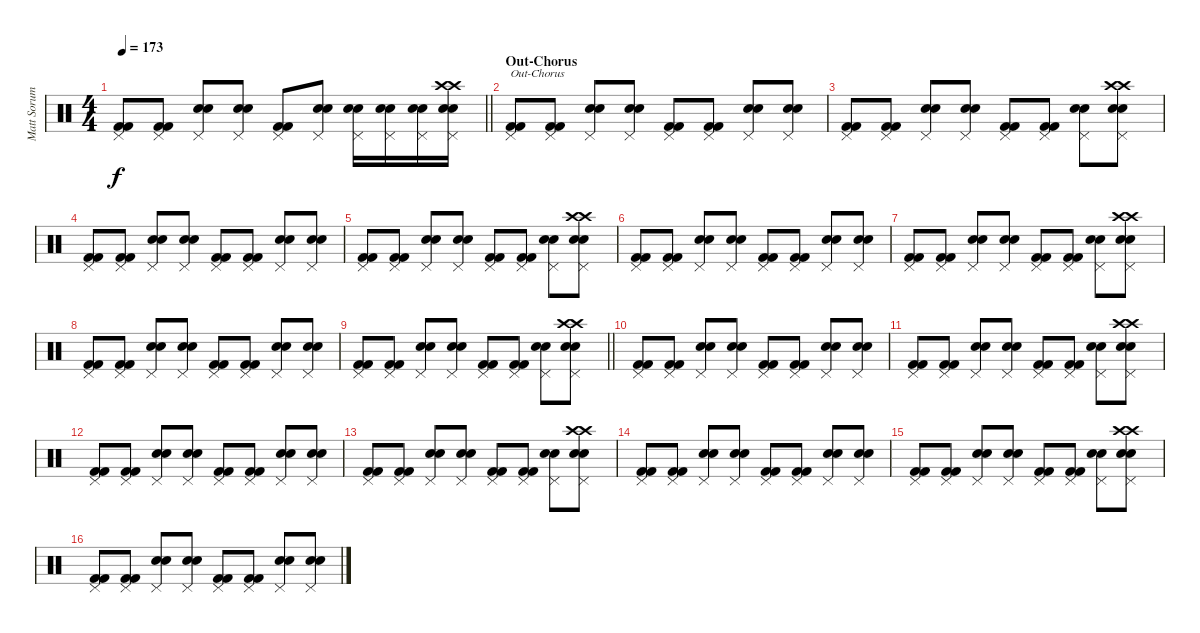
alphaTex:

\track ("Matt Sorum" "Matt Sorum") {instrument percussion}
\staff {score}
\articulation defaults
\ts (4 4)
\tempo 173
\clef neutral
\barLineRight lightlight
\ks c
("Pedal Hi-Hat (hit)" "Kick (hit) 2" "Kick (hit) 2").8{dy f} ("Pedal Hi-Hat (hit)" "Kick (hit) 2" "Kick (hit) 2").8 ("Pedal Hi-Hat (hit)" "Snare (hit) 2" "Snare (hit) 2").8 ("Pedal Hi-Hat (hit)" "Snare (hit) 2" "Snare (hit) 2").8 ("Pedal Hi-Hat (hit)" "Kick (hit) 2" "Kick (hit) 2").8 ("Pedal Hi-Hat (hit)" "Snare (hit) 2" "Snare (hit) 2").8 ("Pedal Hi-Hat (hit)" "Snare (hit) 2" "Snare (hit) 2").16 ("Pedal Hi-Hat (hit)" "Snare (hit) 2" "Snare (hit) 2").16 ("Pedal Hi-Hat (hit)" "Snare (hit) 2" "Snare (hit) 2").16 ("Crash high (hit)" "Crash high (hit)" "Pedal Hi-Hat (hit)" "Snare (hit) 2" "Snare (hit) 2").16 |
\section ("" "Out-Chorus")
("Pedal Hi-Hat (hit)" "Kick (hit) 2" "Kick (hit) 2").8{txt "Out-Chorus"} ("Pedal Hi-Hat (hit)" "Kick (hit) 2" "Kick (hit) 2").8 ("Pedal Hi-Hat (hit)" "Snare (hit) 2" "Snare (hit) 2").8 ("Pedal Hi-Hat (hit)" "Snare (hit) 2" "Snare (hit) 2").8 ("Pedal Hi-Hat (hit)" "Kick (hit) 2" "Kick (hit) 2").8 ("Pedal Hi-Hat (hit)" "Kick (hit) 2" "Kick (hit) 2").8 ("Pedal Hi-Hat (hit)" "Snare (hit) 2" "Snare (hit) 2").8 ("Pedal Hi-Hat (hit)" "Snare (hit) 2" "Snare (hit) 2").8 |
("Pedal Hi-Hat (hit)" "Kick (hit) 2" "Kick (hit) 2").8 ("Pedal Hi-Hat (hit)" "Kick (hit) 2" "Kick (hit) 2").8 ("Pedal Hi-Hat (hit)" "Snare (hit) 2" "Snare (hit) 2").8 ("Pedal Hi-Hat (hit)" "Snare (hit) 2" "Snare (hit) 2").8 ("Pedal Hi-Hat (hit)" "Kick (hit) 2" "Kick (hit) 2").8 ("Pedal Hi-Hat (hit)" "Kick (hit) 2" "Kick (hit) 2").8 ("Pedal Hi-Hat (hit)" "Snare (hit) 2" "Snare (hit) 2").8 ("Crash high (hit)" "Crash high (hit)" "Pedal Hi-Hat (hit)" "Snare (hit) 2" "Snare (hit) 2").8 |
("Pedal Hi-Hat (hit)" "Kick (hit) 2" "Kick (hit) 2").8 ("Pedal Hi-Hat (hit)" "Kick (hit) 2" "Kick (hit) 2").8 ("Pedal Hi-Hat (hit)" "Snare (hit) 2" "Snare (hit) 2").8 ("Pedal Hi-Hat (hit)" "Snare (hit) 2" "Snare (hit) 2").8 ("Pedal Hi-Hat (hit)" "Kick (hit) 2" "Kick (hit) 2").8 ("Pedal Hi-Hat (hit)" "Kick (hit) 2" "Kick (hit) 2").8 ("Pedal Hi-Hat (hit)" "Snare (hit) 2" "Snare (hit) 2").8 ("Pedal Hi-Hat (hit)" "Snare (hit) 2" "Snare (hit) 2").8 |
("Pedal Hi-Hat (hit)" "Kick (hit) 2" "Kick (hit) 2").8 ("Pedal Hi-Hat (hit)" "Kick (hit) 2" "Kick (hit) 2").8 ("Pedal Hi-Hat (hit)" "Snare (hit) 2" "Snare (hit) 2").8 ("Pedal Hi-Hat (hit)" "Snare (hit) 2" "Snare (hit) 2").8 ("Pedal Hi-Hat (hit)" "Kick (hit) 2" "Kick (hit) 2").8 ("Pedal Hi-Hat (hit)" "Kick (hit) 2" "Kick (hit) 2").8 ("Pedal Hi-Hat (hit)" "Snare (hit) 2" "Snare (hit) 2").8 ("Crash high (hit)" "Crash high (hit)" "Pedal Hi-Hat (hit)" "Snare (hit) 2" "Snare (hit) 2").8 |
("Pedal Hi-Hat (hit)" "Kick (hit) 2" "Kick (hit) 2").8 ("Pedal Hi-Hat (hit)" "Kick (hit) 2" "Kick (hit) 2").8 ("Pedal Hi-Hat (hit)" "Snare (hit) 2" "Snare (hit) 2").8 ("Pedal Hi-Hat (hit)" "Snare (hit) 2" "Snare (hit) 2").8 ("Pedal Hi-Hat (hit)" "Kick (hit) 2" "Kick (hit) 2").8 ("Pedal Hi-Hat (hit)" "Kick (hit) 2" "Kick (hit) 2").8 ("Pedal Hi-Hat (hit)" "Snare (hit) 2" "Snare (hit) 2").8 ("Pedal Hi-Hat (hit)" "Snare (hit) 2" "Snare (hit) 2").8 |
("Pedal Hi-Hat (hit)" "Kick (hit) 2" "Kick (hit) 2").8 ("Pedal Hi-Hat (hit)" "Kick (hit) 2" "Kick (hit) 2").8 ("Pedal Hi-Hat (hit)" "Snare (hit) 2" "Snare (hit) 2").8 ("Pedal Hi-Hat (hit)" "Snare (hit) 2" "Snare (hit) 2").8 ("Pedal Hi-Hat (hit)" "Kick (hit) 2" "Kick (hit) 2").8 ("Pedal Hi-Hat (hit)" "Kick (hit) 2" "Kick (hit) 2").8 ("Pedal Hi-Hat (hit)" "Snare (hit) 2" "Snare (hit) 2").8 ("Crash high (hit)" "Crash high (hit)" "Pedal Hi-Hat (hit)" "Snare (hit) 2" "Snare (hit) 2").8 |
("Pedal Hi-Hat (hit)" "Kick (hit) 2" "Kick (hit) 2").8 ("Pedal Hi-Hat (hit)" "Kick (hit) 2" "Kick (hit) 2").8 ("Pedal Hi-Hat (hit)" "Snare (hit) 2" "Snare (hit) 2").8 ("Pedal Hi-Hat (hit)" "Snare (hit) 2" "Snare (hit) 2").8 ("Pedal Hi-Hat (hit)" "Kick (hit) 2" "Kick (hit) 2").8 ("Pedal Hi-Hat (hit)" "Kick (hit) 2" "Kick (hit) 2").8 ("Pedal Hi-Hat (hit)" "Snare (hit) 2" "Snare (hit) 2").8 ("Pedal Hi-Hat (hit)" "Snare (hit) 2" "Snare (hit) 2").8 |
\barLineRight lightlight
("Pedal Hi-Hat (hit)" "Kick (hit) 2" "Kick (hit) 2").8 ("Pedal Hi-Hat (hit)" "Kick (hit) 2" "Kick (hit) 2").8 ("Pedal Hi-Hat (hit)" "Snare (hit) 2" "Snare (hit) 2").8 ("Pedal Hi-Hat (hit)" "Snare (hit) 2" "Snare (hit) 2").8 ("Pedal Hi-Hat (hit)" "Kick (hit) 2" "Kick (hit) 2").8 ("Pedal Hi-Hat (hit)" "Kick (hit) 2" "Kick (hit) 2").8 ("Pedal Hi-Hat (hit)" "Snare (hit) 2" "Snare (hit) 2").8 ("Crash high (hit)" "Crash high (hit)" "Pedal Hi-Hat (hit)" "Snare (hit) 2" "Snare (hit) 2").8 |
("Pedal Hi-Hat (hit)" "Kick (hit) 2" "Kick (hit) 2").8 ("Pedal Hi-Hat (hit)" "Kick (hit) 2" "Kick (hit) 2").8 ("Pedal Hi-Hat (hit)" "Snare (hit) 2" "Snare (hit) 2").8 ("Pedal Hi-Hat (hit)" "Snare (hit) 2" "Snare (hit) 2").8 ("Pedal Hi-Hat (hit)" "Kick (hit) 2" "Kick (hit) 2").8 ("Pedal Hi-Hat (hit)" "Kick (hit) 2" "Kick (hit) 2").8 ("Pedal Hi-Hat (hit)" "Snare (hit) 2" "Snare (hit) 2").8 ("Pedal Hi-Hat (hit)" "Snare (hit) 2" "Snare (hit) 2").8 |
("Pedal Hi-Hat (hit)" "Kick (hit) 2" "Kick (hit) 2").8 ("Pedal Hi-Hat (hit)" "Kick (hit) 2" "Kick (hit) 2").8 ("Pedal Hi-Hat (hit)" "Snare (hit) 2" "Snare (hit) 2").8 ("Pedal Hi-Hat (hit)" "Snare (hit) 2" "Snare (hit) 2").8 ("Pedal Hi-Hat (hit)" "Kick (hit) 2" "Kick (hit) 2").8 ("Pedal Hi-Hat (hit)" "Kick (hit) 2" "Kick (hit) 2").8 ("Pedal Hi-Hat (hit)" "Snare (hit) 2" "Snare (hit) 2").8 ("Crash high (hit)" "Crash high (hit)" "Pedal Hi-Hat (hit)" "Snare (hit) 2" "Snare (hit) 2").8 |
("Pedal Hi-Hat (hit)" "Kick (hit) 2" "Kick (hit) 2").8 ("Pedal Hi-Hat (hit)" "Kick (hit) 2" "Kick (hit) 2").8 ("Pedal Hi-Hat (hit)" "Snare (hit) 2" "Snare (hit) 2").8 ("Pedal Hi-Hat (hit)" "Snare (hit) 2" "Snare (hit) 2").8 ("Pedal Hi-Hat (hit)" "Kick (hit) 2" "Kick (hit) 2").8 ("Pedal Hi-Hat (hit)" "Kick (hit) 2" "Kick (hit) 2").8 ("Pedal Hi-Hat (hit)" "Snare (hit) 2" "Snare (hit) 2").8 ("Pedal Hi-Hat (hit)" "Snare (hit) 2" "Snare (hit) 2").8 |
("Pedal Hi-Hat (hit)" "Kick (hit) 2" "Kick (hit) 2").8 ("Pedal Hi-Hat (hit)" "Kick (hit) 2" "Kick (hit) 2").8 ("Pedal Hi-Hat (hit)" "Snare (hit) 2" "Snare (hit) 2").8 ("Pedal Hi-Hat (hit)" "Snare (hit) 2" "Snare (hit) 2").8 ("Pedal Hi-Hat (hit)" "Kick (hit) 2" "Kick (hit) 2").8 ("Pedal Hi-Hat (hit)" "Kick (hit) 2" "Kick (hit) 2").8 ("Pedal Hi-Hat (hit)" "Snare (hit) 2" "Snare (hit) 2").8 ("Crash high (hit)" "Crash high (hit)" "Pedal Hi-Hat (hit)" "Snare (hit) 2" "Snare (hit) 2").8 |
("Pedal Hi-Hat (hit)" "Kick (hit) 2" "Kick (hit) 2").8 ("Pedal Hi-Hat (hit)" "Kick (hit) 2" "Kick (hit) 2").8 ("Pedal Hi-Hat (hit)" "Snare (hit) 2" "Snare (hit) 2").8 ("Pedal Hi-Hat (hit)" "Snare (hit) 2" "Snare (hit) 2").8 ("Pedal Hi-Hat (hit)" "Kick (hit) 2" "Kick (hit) 2").8 ("Pedal Hi-Hat (hit)" "Kick (hit) 2" "Kick (hit) 2").8 ("Pedal Hi-Hat (hit)" "Snare (hit) 2" "Snare (hit) 2").8 ("Pedal Hi-Hat (hit)" "Snare (hit) 2" "Snare (hit) 2").8 |
("Pedal Hi-Hat (hit)" "Kick (hit) 2" "Kick (hit) 2").8 ("Pedal Hi-Hat (hit)" "Kick (hit) 2" "Kick (hit) 2").8 ("Pedal Hi-Hat (hit)" "Snare (hit) 2" "Snare (hit) 2").8 ("Pedal Hi-Hat (hit)" "Snare (hit) 2" "Snare (hit) 2").8 ("Pedal Hi-Hat (hit)" "Kick (hit) 2" "Kick (hit) 2").8 ("Pedal Hi-Hat (hit)" "Kick (hit) 2" "Kick (hit) 2").8 ("Pedal Hi-Hat (hit)" "Snare (hit) 2" "Snare (hit) 2").8 ("Crash high (hit)" "Crash high (hit)" "Pedal Hi-Hat (hit)" "Snare (hit) 2" "Snare (hit) 2").8 |
("Pedal Hi-Hat (hit)" "Kick (hit) 2" "Kick (hit) 2").8 ("Pedal Hi-Hat (hit)" "Kick (hit) 2" "Kick (hit) 2").8 ("Pedal Hi-Hat (hit)" "Snare (hit) 2" "Snare (hit) 2").8 ("Pedal Hi-Hat (hit)" "Snare (hit) 2" "Snare (hit) 2").8 ("Pedal Hi-Hat (hit)" "Kick (hit) 2" "Kick (hit) 2").8 ("Pedal Hi-Hat (hit)" "Kick (hit) 2" "Kick (hit) 2").8 ("Pedal Hi-Hat (hit)" "Snare (hit) 2" "Snare (hit) 2").8 ("Pedal Hi-Hat (hit)" "Snare (hit) 2" "Snare (hit) 2").8
